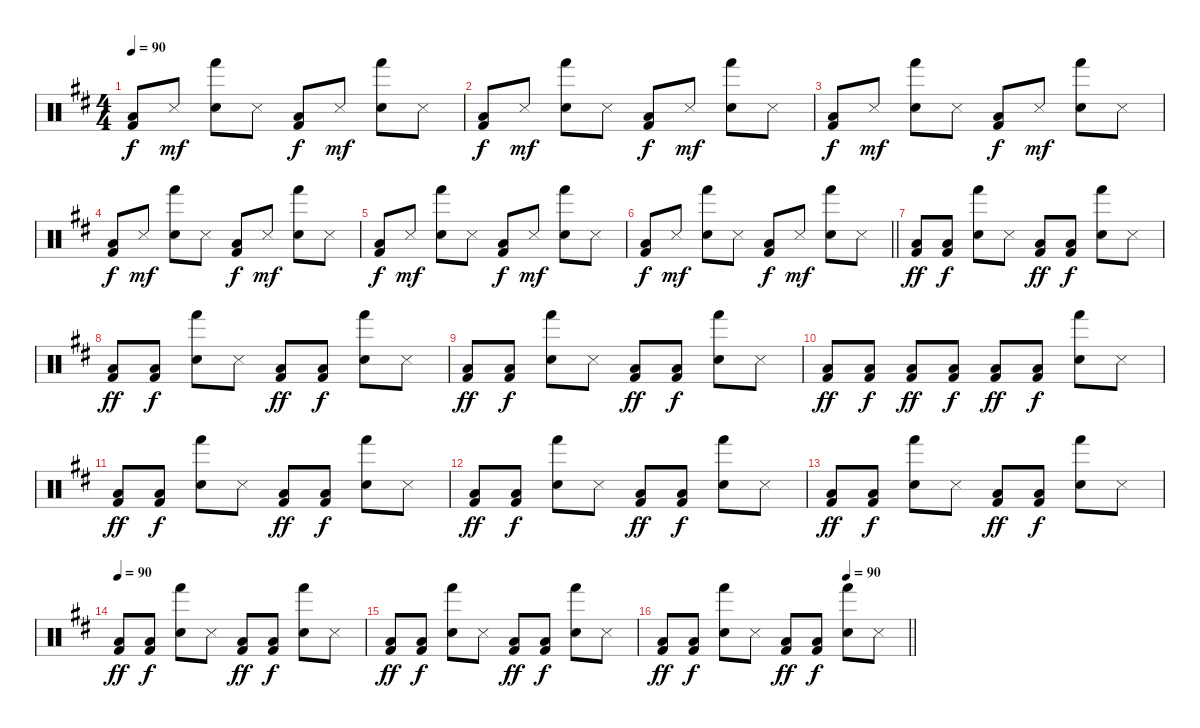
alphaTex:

\track "" {instrument percussion}
\staff {score}
\articulation defaults
\ts (4 4)
\tempo 90
\clef neutral
\ks d
("Kick (hit) 2" "Low Floor Tom (hit)").8{dy f} "Snare (side stick) 3".8{dy mf} ("Electric Snare (hit)" "Hand (hit)").8 "Snare (side stick) 3".8 ("Kick (hit) 2" "Low Floor Tom (hit)").8{dy f} "Snare (side stick) 3".8{dy mf} ("Electric Snare (hit)" "Hand (hit)").8 "Snare (side stick) 3".8 |
("Kick (hit) 2" "Low Floor Tom (hit)").8{dy f} "Snare (side stick) 3".8{dy mf} ("Electric Snare (hit)" "Hand (hit)").8 "Snare (side stick) 3".8 ("Kick (hit) 2" "Low Floor Tom (hit)").8{dy f} "Snare (side stick) 3".8{dy mf} ("Electric Snare (hit)" "Hand (hit)").8 "Snare (side stick) 3".8 |
("Kick (hit) 2" "Low Floor Tom (hit)").8{dy f} "Snare (side stick) 3".8{dy mf} ("Electric Snare (hit)" "Hand (hit)").8 "Snare (side stick) 3".8 ("Kick (hit) 2" "Low Floor Tom (hit)").8{dy f} "Snare (side stick) 3".8{dy mf} ("Electric Snare (hit)" "Hand (hit)").8 "Snare (side stick) 3".8 |
("Kick (hit) 2" "Low Floor Tom (hit)").8{dy f} "Snare (side stick) 3".8{dy mf} ("Electric Snare (hit)" "Hand (hit)").8 "Snare (side stick) 3".8 ("Kick (hit) 2" "Low Floor Tom (hit)").8{dy f} "Snare (side stick) 3".8{dy mf} ("Electric Snare (hit)" "Hand (hit)").8 "Snare (side stick) 3".8 |
("Kick (hit) 2" "Low Floor Tom (hit)").8{dy f} "Snare (side stick) 3".8{dy mf} ("Electric Snare (hit)" "Hand (hit)").8 "Snare (side stick) 3".8 ("Kick (hit) 2" "Low Floor Tom (hit)").8{dy f} "Snare (side stick) 3".8{dy mf} ("Electric Snare (hit)" "Hand (hit)").8 "Snare (side stick) 3".8 |
\barLineRight lightlight
("Kick (hit) 2" "Low Floor Tom (hit)").8{dy f} "Snare (side stick) 3".8{dy mf} ("Electric Snare (hit)" "Hand (hit)").8 "Snare (side stick) 3".8 ("Kick (hit) 2" "Low Floor Tom (hit)").8{dy f} "Snare (side stick) 3".8{dy mf} ("Electric Snare (hit)" "Hand (hit)").8 "Snare (side stick) 3".8 |
\section ("" "")
("Kick (hit) 2" "Low Floor Tom (hit)").8{dy ff} ("Kick (hit) 2" "Low Floor Tom (hit)").8{dy f} ("Electric Snare (hit)" "Hand (hit)").8 "Snare (side stick) 3".8 ("Kick (hit) 2" "Low Floor Tom (hit)").8{dy ff} ("Kick (hit) 2" "Low Floor Tom (hit)").8{dy f} ("Electric Snare (hit)" "Hand (hit)").8 "Snare (side stick) 3".8 |
("Kick (hit) 2" "Low Floor Tom (hit)").8{dy ff} ("Kick (hit) 2" "Low Floor Tom (hit)").8{dy f} ("Electric Snare (hit)" "Hand (hit)").8 "Snare (side stick) 3".8 ("Kick (hit) 2" "Low Floor Tom (hit)").8{dy ff} ("Kick (hit) 2" "Low Floor Tom (hit)").8{dy f} ("Electric Snare (hit)" "Hand (hit)").8 "Snare (side stick) 3".8 |
("Kick (hit) 2" "Low Floor Tom (hit)").8{dy ff} ("Kick (hit) 2" "Low Floor Tom (hit)").8{dy f} ("Electric Snare (hit)" "Hand (hit)").8 "Snare (side stick) 3".8 ("Kick (hit) 2" "Low Floor Tom (hit)").8{dy ff} ("Kick (hit) 2" "Low Floor Tom (hit)").8{dy f} ("Electric Snare (hit)" "Hand (hit)").8 "Snare (side stick) 3".8 |
("Kick (hit) 2" "Low Floor Tom (hit)").8{dy ff} ("Kick (hit) 2" "Low Floor Tom (hit)").8{dy f} ("Kick (hit) 2" "Low Floor Tom (hit)").8{dy ff} ("Kick (hit) 2" "Low Floor Tom (hit)").8{dy f} ("Kick (hit) 2" "Low Floor Tom (hit)").8{dy ff} ("Kick (hit) 2" "Low Floor Tom (hit)").8{dy f} ("Electric Snare (hit)" "Hand (hit)").8 "Snare (side stick) 3".8 |
("Kick (hit) 2" "Low Floor Tom (hit)").8{dy ff} ("Kick (hit) 2" "Low Floor Tom (hit)").8{dy f} ("Electric Snare (hit)" "Hand (hit)").8 "Snare (side stick) 3".8 ("Kick (hit) 2" "Low Floor Tom (hit)").8{dy ff} ("Kick (hit) 2" "Low Floor Tom (hit)").8{dy f} ("Electric Snare (hit)" "Hand (hit)").8 "Snare (side stick) 3".8 |
("Kick (hit) 2" "Low Floor Tom (hit)").8{dy ff} ("Kick (hit) 2" "Low Floor Tom (hit)").8{dy f} ("Electric Snare (hit)" "Hand (hit)").8 "Snare (side stick) 3".8 ("Kick (hit) 2" "Low Floor Tom (hit)").8{dy ff} ("Kick (hit) 2" "Low Floor Tom (hit)").8{dy f} ("Electric Snare (hit)" "Hand (hit)").8 "Snare (side stick) 3".8 |
("Kick (hit) 2" "Low Floor Tom (hit)").8{dy ff} ("Kick (hit) 2" "Low Floor Tom (hit)").8{dy f} ("Electric Snare (hit)" "Hand (hit)").8 "Snare (side stick) 3".8 ("Kick (hit) 2" "Low Floor Tom (hit)").8{dy ff} ("Kick (hit) 2" "Low Floor Tom (hit)").8{dy f} ("Electric Snare (hit)" "Hand (hit)").8 "Snare (side stick) 3".8 |
\tempo 90
("Kick (hit) 2" "Low Floor Tom (hit)").8{dy ff} ("Kick (hit) 2" "Low Floor Tom (hit)").8{dy f} ("Electric Snare (hit)" "Hand (hit)").8 "Snare (side stick) 3".8 ("Kick (hit) 2" "Low Floor Tom (hit)").8{dy ff} ("Kick (hit) 2" "Low Floor Tom (hit)").8{dy f} ("Electric Snare (hit)" "Hand (hit)").8 "Snare (side stick) 3".8 |
("Kick (hit) 2" "Low Floor Tom (hit)").8{dy ff} ("Kick (hit) 2" "Low Floor Tom (hit)").8{dy f} ("Electric Snare (hit)" "Hand (hit)").8 "Snare (side stick) 3".8 ("Kick (hit) 2" "Low Floor Tom (hit)").8{dy ff} ("Kick (hit) 2" "Low Floor Tom (hit)").8{dy f} ("Electric Snare (hit)" "Hand (hit)").8 "Snare (side stick) 3".8 |
\tempo (90 0.75)
\barLineRight lightlight
("Kick (hit) 2" "Low Floor Tom (hit)").8{dy ff} ("Kick (hit) 2" "Low Floor Tom (hit)").8{dy f} ("Electric Snare (hit)" "Hand (hit)").8 "Snare (side stick) 3".8 ("Kick (hit) 2" "Low Floor Tom (hit)").8{dy ff} ("Kick (hit) 2" "Low Floor Tom (hit)").8{dy f} ("Electric Snare (hit)" "Hand (hit)").8 "Snare (side stick) 3".8
